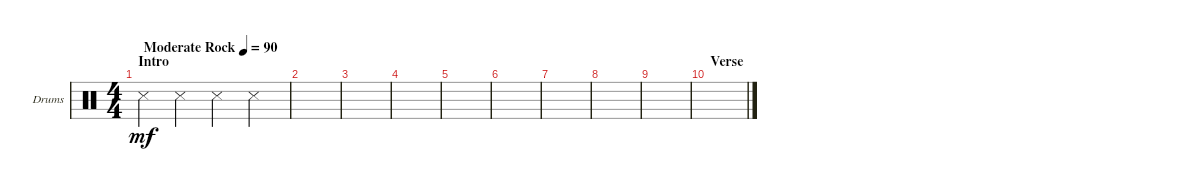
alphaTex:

\defaultSystemsLayout 4
\bracketExtendMode groupsimilarinstruments
\firstSystemTrackNameOrientation horizontal
\otherSystemsTrackNameOrientation horizontal
\track ("Drumkit" "Drums") {instrument percussion}
\staff {score}
\articulation defaults
\ts (4 4)
\section ("" "Intro")
\tempo (90 "Moderate Rock")
\clef neutral
\scale
0.47907
\ks c "Snare (side stick) 3".4{dy mf} "Snare (side stick) 3".4 "Snare (side stick) 3".4 "Snare (side stick) 3".4
|
\scale
0.260465 |
\scale
0.260465 |
\scale
0.217054 |
\scale
0.391473 |
\scale
0.391473 |
\scale
0.333333 |
\scale
0.333333 |
\scale
0.333333 |
\section ("" "Verse")
\scale
0.333333 |
\scale
0.333333 |
\scale
0.333333 |
\scale
0.333333 |
\scale
0.333333 |
\scale
0.333333 |
\scale
0.333333
